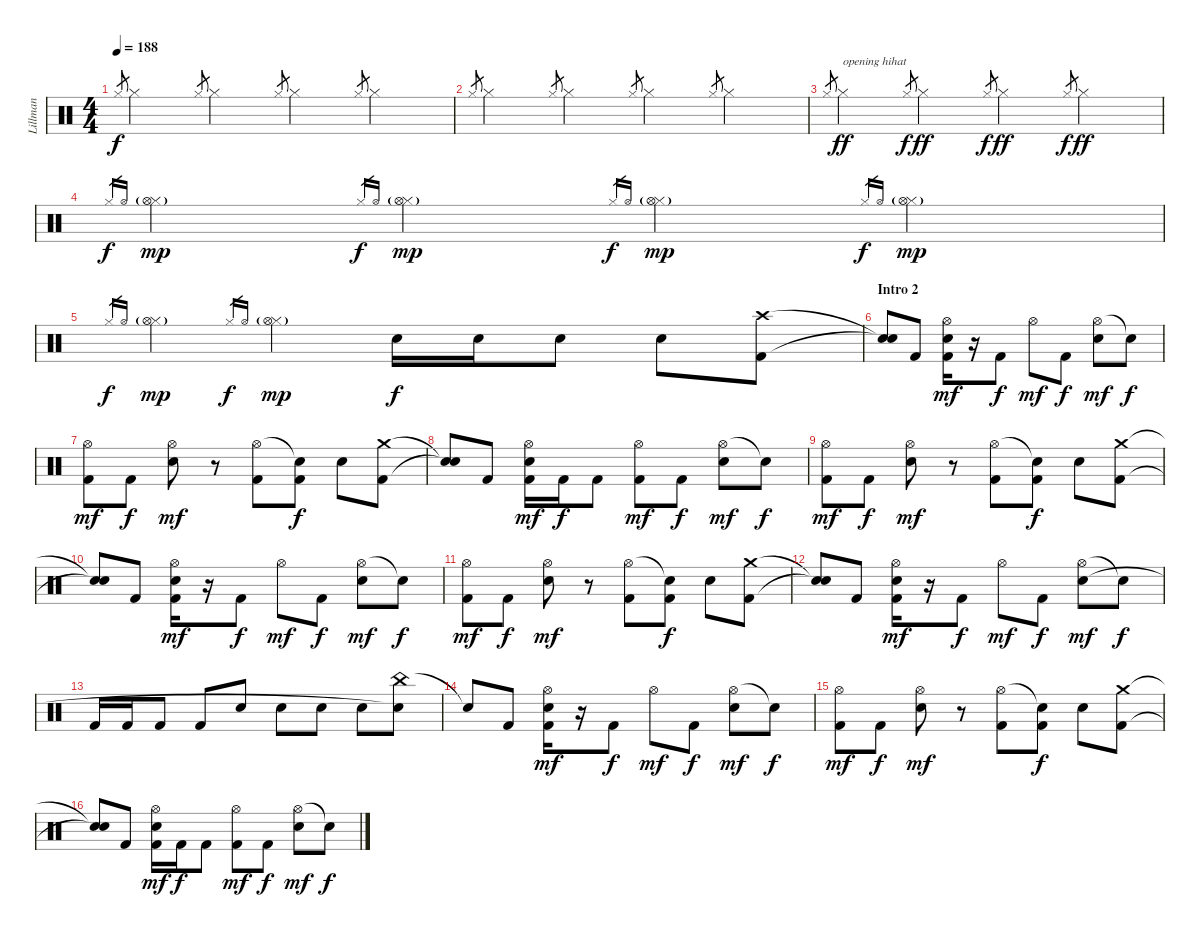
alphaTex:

\track ("Lillman" "Lillman") {instrument percussion}
\staff {score}
\articulation defaults
\ts (4 4)
\tempo 188
\clef neutral
\ks c "Hi-Hat (closed)".8{gr dy f} "Hi-Hat (closed)".4 "Hi-Hat (closed)".8{gr} "Hi-Hat (closed)".4 "Hi-Hat (closed)".8{gr} "Hi-Hat (closed)".4 "Hi-Hat (closed)".8{gr} "Hi-Hat (closed)".4
|
"Hi-Hat (closed)".8{gr} "Hi-Hat (closed)".4 "Hi-Hat (closed)".8{gr} "Hi-Hat (closed)".4 "Hi-Hat (closed)".8{gr} "Hi-Hat (closed)".4 "Hi-Hat (closed)".8{gr} "Hi-Hat (closed)".4 |
"Hi-Hat (closed)".8{gr} "Hi-Hat (closed)".4{txt "opening hihat" dy ff} "Hi-Hat (closed)".8{gr dy f} "Hi-Hat (closed)".4{dy ff} "Hi-Hat (closed)".8{gr dy f} "Hi-Hat (closed)".4{dy ff} "Hi-Hat (closed)".8{gr dy f} "Hi-Hat (closed)".4{dy ff} |
"Hi-Hat (closed)".16{gr dy f} "Hi-Hat (open)".16{gr} ("Hi-Hat (closed)" "Hi-Hat (open)"{g}).4{dy mp} "Hi-Hat (closed)".16{gr dy f} "Hi-Hat (open)".16{gr} ("Hi-Hat (closed)" "Hi-Hat (open)"{g}).4{dy mp} "Hi-Hat (closed)".16{gr dy f} "Hi-Hat (open)".16{gr} ("Hi-Hat (closed)" "Hi-Hat (open)"{g}).4{dy mp} "Hi-Hat (closed)".16{gr dy f} "Hi-Hat (open)".16{gr} ("Hi-Hat (closed)" "Hi-Hat (open)"{g}).4{dy mp} |
"Hi-Hat (closed)".16{gr dy f} "Hi-Hat (open)".16{gr} ("Hi-Hat (closed)" "Hi-Hat (open)"{g}).4{dy mp} "Hi-Hat (closed)".16{gr dy f} "Hi-Hat (open)".16{gr} ("Hi-Hat (closed)" "Hi-Hat (open)"{g}).4{dy mp} "Snare (hit) 2".16{dy f} "Snare (hit) 2".16 "Snare (hit) 2".8 "Snare (hit) 2".8 ("Crash high (hit)" "Kick (hit) 2").8 |
\section ("" "Intro 2")
("Snare (hit)"{t} "Snare (hit)"{t}).8 "Kick (hit) 2".8 ("Hi-Hat (open)" "Snare (hit) 2" "Kick (hit) 2").16{dy mf} r.16 "Kick (hit) 2".8{dy f} "Hi-Hat (open)".8{dy mf} "Kick (hit) 2".8{dy f} ("Hi-Hat (open)" "Snare (hit) 2").8{dy mf} "Snare (hit)"{t}.8{dy f} |
("Hi-Hat (open)" "Kick (hit) 2").8{dy mf} "Kick (hit) 2".8{dy f} ("Hi-Hat (open)" "Snare (hit) 2").8{dy mf} r.8 ("Hi-Hat (open)" "Kick (hit) 2").8 ("Snare (hit)"{t} "Kick (hit) 2").8{dy f} "Snare (hit) 2".8 ("Crash medium (hit)" "Kick (hit) 2").8 |
("Snare (hit)"{t} "Snare (hit)"{t}).8 "Kick (hit) 2".8 ("Hi-Hat (open)" "Snare (hit) 2" "Kick (hit) 2").16{dy mf} "Kick (hit) 2".16{dy f} "Kick (hit) 2".8 ("Hi-Hat (open)" "Kick (hit) 2").8{dy mf} "Kick (hit) 2".8{dy f} ("Hi-Hat (open)" "Snare (hit) 2").8{dy mf} "Snare (hit)"{t}.8{dy f} |
("Hi-Hat (open)" "Kick (hit) 2").8{dy mf} "Kick (hit) 2".8{dy f} ("Hi-Hat (open)" "Snare (hit) 2").8{dy mf} r.8 ("Hi-Hat (open)" "Kick (hit) 2").8 ("Snare (hit)"{t} "Kick (hit) 2").8{dy f} "Snare (hit) 2".8 ("Crash medium (hit)" "Kick (hit) 2").8 |
("Snare (hit)"{t} "Snare (hit)"{t}).8 "Kick (hit) 2".8 ("Hi-Hat (open)" "Snare (hit) 2" "Kick (hit) 2").16{dy mf} r.16 "Kick (hit) 2".8{dy f} "Hi-Hat (open)".8{dy mf} "Kick (hit) 2".8{dy f} ("Hi-Hat (open)" "Snare (hit) 2").8{dy mf} "Snare (hit)"{t}.8{dy f} |
("Hi-Hat (open)" "Kick (hit) 2").8{dy mf} "Kick (hit) 2".8{dy f} ("Hi-Hat (open)" "Snare (hit) 2").8{dy mf} r.8 ("Hi-Hat (open)" "Kick (hit) 2").8 ("Snare (hit)"{t} "Kick (hit) 2").8{dy f} "Snare (hit) 2".8 ("Crash medium (hit)" "Kick (hit) 2").8 |
("Snare (hit)"{t} "Snare (hit)"{t}).8 "Kick (hit) 2".8 ("Hi-Hat (open)" "Snare (hit) 2" "Kick (hit) 2").16{dy mf} r.16 "Kick (hit) 2".8{dy f} "Hi-Hat (open)".8{dy mf} "Kick (hit) 2".8{dy f} ("Hi-Hat (open)" "Snare (hit) 2").8{dy mf} "Snare (hit)"{t}.8{dy f} |
"Kick (hit) 2".16 "Kick (hit) 2".16 "Kick (hit) 2".8 "Kick (hit) 2".8 "Snare (hit) 2".8 "Snare (hit) 2".8 "Snare (hit) 2".8 "Snare (hit) 2".8 ("China (hit)" "Snare (hit) 2"{t}).8 |
"Snare (hit)"{t}.8 "Kick (hit) 2".8 ("Hi-Hat (open)" "Snare (hit) 2" "Kick (hit) 2").16{dy mf} r.16 "Kick (hit) 2".8{dy f} "Hi-Hat (open)".8{dy mf} "Kick (hit) 2".8{dy f} ("Hi-Hat (open)" "Snare (hit) 2").8{dy mf} "Snare (hit)"{t}.8{dy f} |
("Hi-Hat (open)" "Kick (hit) 2").8{dy mf} "Kick (hit) 2".8{dy f} ("Hi-Hat (open)" "Snare (hit) 2").8{dy mf} r.8 ("Hi-Hat (open)" "Kick (hit) 2").8 ("Snare (hit)"{t} "Kick (hit) 2").8{dy f} "Snare (hit) 2".8 ("Crash medium (hit)" "Kick (hit) 2").8 |
("Snare (hit)"{t} "Snare (hit)"{t}).8 "Kick (hit) 2".8 ("Hi-Hat (open)" "Snare (hit) 2" "Kick (hit) 2").16{dy mf} "Kick (hit) 2".16{dy f} "Kick (hit) 2".8 ("Hi-Hat (open)" "Kick (hit) 2").8{dy mf} "Kick (hit) 2".8{dy f} ("Hi-Hat (open)" "Snare (hit) 2").8{dy mf} "Snare (hit)"{t}.8{dy f}
